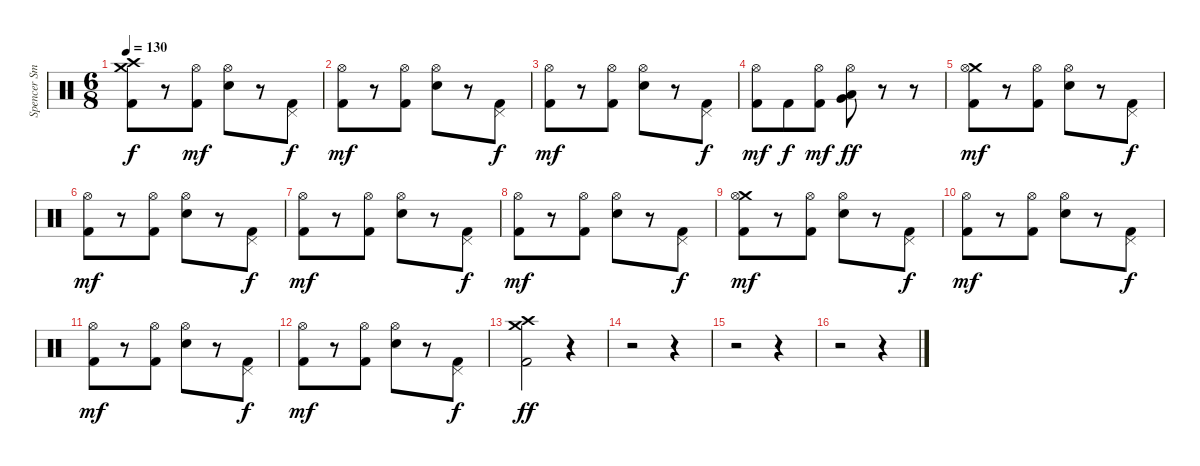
\track ("Spencer Smith (Drums)" "Spencer Sm") {instrument percussion}
\staff {score}
\articulation defaults
\ts (6 8)
\tempo 130
\clef neutral
\ks c
("Crash high (hit)" "Crash medium (hit)" "Kick (hit) 2").8{dy f} r.8 ("Hi-Hat (open)" "Kick (hit) 2").8{dy mf} ("Hi-Hat (open)" "Electric Snare (hit)").8 r.8 ("Pedal Hi-Hat (hit)" "Kick (hit) 2").8{dy f} |
("Hi-Hat (open)" "Kick (hit) 2").8{dy mf} r.8 ("Hi-Hat (open)" "Kick (hit) 2").8 ("Hi-Hat (open)" "Electric Snare (hit)").8 r.8 ("Pedal Hi-Hat (hit)" "Kick (hit) 2").8{dy f} |
("Hi-Hat (open)" "Kick (hit) 2").8{dy mf} r.8 ("Hi-Hat (open)" "Kick (hit) 2").8 ("Hi-Hat (open)" "Electric Snare (hit)").8 r.8 ("Pedal Hi-Hat (hit)" "Kick (hit) 2").8{dy f} |
("Hi-Hat (open)" "Kick (hit) 2").8{dy mf} "Kick (hit) 2".8{dy f} ("Hi-Hat (open)" "Kick (hit) 2").8{dy mf} ("Hi-Hat (open)" "Low Tom (hit)" "Very Low Tom (hit)").8{dy ff} r.8 r.8 |
("Crash medium (hit)" "Hi-Hat (open)" "Kick (hit) 2").8{dy mf} r.8 ("Hi-Hat (open)" "Kick (hit) 2").8 ("Hi-Hat (open)" "Electric Snare (hit)").8 r.8 ("Pedal Hi-Hat (hit)" "Kick (hit) 2").8{dy f} |
("Hi-Hat (open)" "Kick (hit) 2").8{dy mf} r.8 ("Hi-Hat (open)" "Kick (hit) 2").8 ("Hi-Hat (open)" "Electric Snare (hit)").8 r.8 ("Pedal Hi-Hat (hit)" "Kick (hit) 2").8{dy f} |
("Hi-Hat (open)" "Kick (hit) 2").8{dy mf} r.8 ("Hi-Hat (open)" "Kick (hit) 2").8 ("Hi-Hat (open)" "Electric Snare (hit)").8 r.8 ("Pedal Hi-Hat (hit)" "Kick (hit) 2").8{dy f} |
("Hi-Hat (open)" "Kick (hit) 2").8{dy mf} r.8 ("Hi-Hat (open)" "Kick (hit) 2").8 ("Hi-Hat (open)" "Electric Snare (hit)").8 r.8 ("Pedal Hi-Hat (hit)" "Kick (hit) 2").8{dy f} |
("Crash medium (hit)" "Hi-Hat (open)" "Kick (hit) 2").8{dy mf} r.8 ("Hi-Hat (open)" "Kick (hit) 2").8 ("Hi-Hat (open)" "Electric Snare (hit)").8 r.8 ("Pedal Hi-Hat (hit)" "Kick (hit) 2").8{dy f} |
("Hi-Hat (open)" "Kick (hit) 2").8{dy mf} r.8 ("Hi-Hat (open)" "Kick (hit) 2").8 ("Hi-Hat (open)" "Electric Snare (hit)").8 r.8 ("Pedal Hi-Hat (hit)" "Kick (hit) 2").8{dy f} |
("Hi-Hat (open)" "Kick (hit) 2").8{dy mf} r.8 ("Hi-Hat (open)" "Kick (hit) 2").8 ("Hi-Hat (open)" "Electric Snare (hit)").8 r.8 ("Pedal Hi-Hat (hit)" "Kick (hit) 2").8{dy f} |
("Hi-Hat (open)" "Kick (hit) 2").8{dy mf} r.8 ("Hi-Hat (open)" "Kick (hit) 2").8 ("Hi-Hat (open)" "Electric Snare (hit)").8 r.8 ("Pedal Hi-Hat (hit)" "Kick (hit) 2").8{dy f} |
("Crash medium (hit)" "Crash high (hit)" "Kick (hit) 2").2{dy ff} r.4 |
r.2 r.4 |
r.2 r.4 |
r.2 r.4
